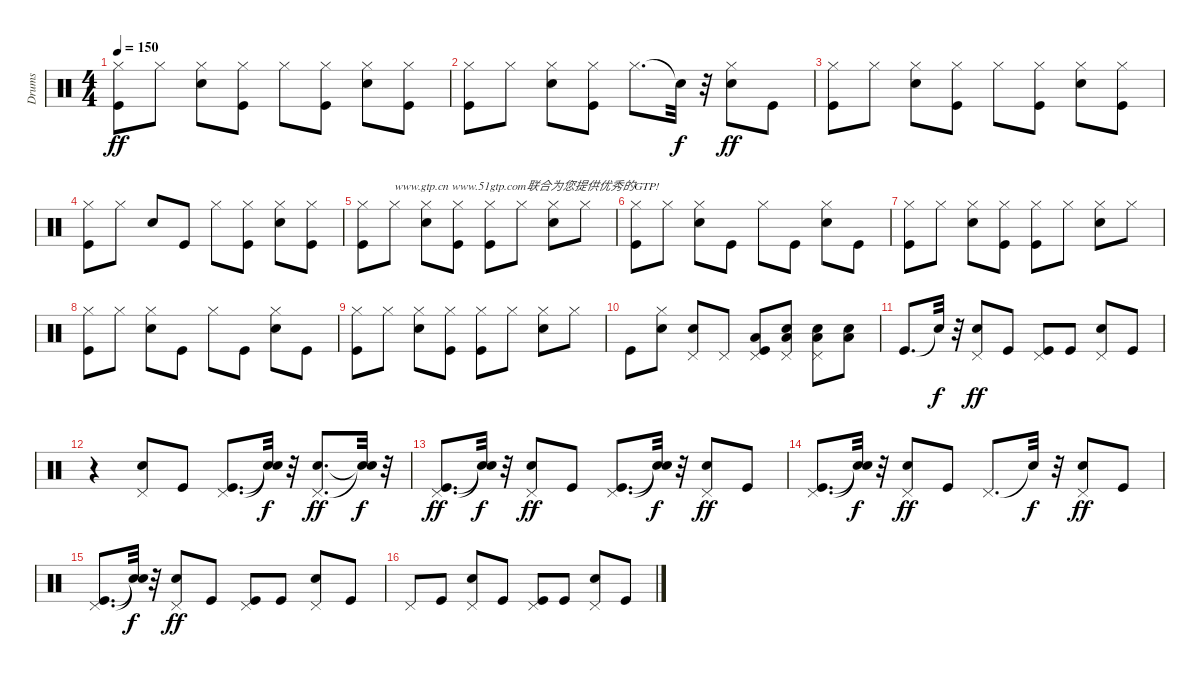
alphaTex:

\track ("Drums" "Drums") {instrument percussion}
\staff {score}
\articulation defaults
\ts (4 4)
\tempo 150
\clef neutral
\ks c
("Kick (hit)" "Hi-Hat (closed)").8{dy ff} "Hi-Hat (closed)".8 ("Snare (hit) 2" "Hi-Hat (closed)").8 ("Kick (hit)" "Hi-Hat (closed)").8 "Hi-Hat (closed)".8 ("Kick (hit)" "Hi-Hat (closed)").8 ("Snare (hit) 2" "Hi-Hat (closed)").8 ("Kick (hit)" "Hi-Hat (closed)").8 |
("Kick (hit)" "Hi-Hat (closed)").8 "Hi-Hat (closed)".8 ("Snare (hit) 2" "Hi-Hat (closed)").8 ("Kick (hit)" "Hi-Hat (closed)").8 "Hi-Hat (closed)".8{d} "Snare (hit)"{t}.32{dy f} r.32 ("Snare (hit) 2" "Hi-Hat (closed)").8{dy ff} "Kick (hit)".8 |
("Kick (hit)" "Hi-Hat (closed)").8 "Hi-Hat (closed)".8 ("Snare (hit) 2" "Hi-Hat (closed)").8 ("Kick (hit)" "Hi-Hat (closed)").8 "Hi-Hat (closed)".8 ("Kick (hit)" "Hi-Hat (closed)").8 ("Snare (hit) 2" "Hi-Hat (closed)").8 ("Kick (hit)" "Hi-Hat (closed)").8 |
("Kick (hit)" "Hi-Hat (closed)").8 "Hi-Hat (closed)".8 "Snare (hit) 2".8 "Kick (hit)".8 "Hi-Hat (closed)".8 ("Kick (hit)" "Hi-Hat (closed)").8 ("Snare (hit) 2" "Hi-Hat (closed)").8 ("Kick (hit)" "Hi-Hat (closed)").8 |
("Kick (hit)" "Hi-Hat (closed)").8 "Hi-Hat (closed)".8{txt "www.gtp.cn www.51gtp.com联合为您提供优秀的GTP!"} ("Snare (hit) 2" "Hi-Hat (closed)").8 ("Kick (hit)" "Hi-Hat (closed)").8 ("Kick (hit)" "Hi-Hat (closed)").8 "Hi-Hat (closed)".8 ("Snare (hit) 2" "Hi-Hat (closed)").8 "Hi-Hat (closed)".8 |
("Kick (hit)" "Hi-Hat (closed)").8 "Hi-Hat (closed)".8 ("Snare (hit) 2" "Hi-Hat (closed)").8 "Kick (hit)".8 "Hi-Hat (closed)".8 "Kick (hit)".8 ("Snare (hit) 2" "Hi-Hat (closed)").8 "Kick (hit)".8 |
("Kick (hit)" "Hi-Hat (closed)").8 "Hi-Hat (closed)".8 ("Snare (hit) 2" "Hi-Hat (closed)").8 ("Kick (hit)" "Hi-Hat (closed)").8 ("Kick (hit)" "Hi-Hat (closed)").8 "Hi-Hat (closed)".8 ("Snare (hit) 2" "Hi-Hat (closed)").8 "Hi-Hat (closed)".8 |
("Kick (hit)" "Hi-Hat (closed)").8 "Hi-Hat (closed)".8 ("Snare (hit) 2" "Hi-Hat (closed)").8 "Kick (hit)".8 "Hi-Hat (closed)".8 "Kick (hit)".8 ("Snare (hit) 2" "Hi-Hat (closed)").8 "Kick (hit)".8 |
("Kick (hit)" "Hi-Hat (closed)").8 "Hi-Hat (closed)".8 ("Snare (hit) 2" "Hi-Hat (closed)").8 ("Kick (hit)" "Hi-Hat (closed)").8 ("Kick (hit)" "Hi-Hat (closed)").8 "Hi-Hat (closed)".8 ("Snare (hit) 2" "Hi-Hat (closed)").8 "Hi-Hat (closed)".8 |
"Kick (hit)".8 ("Snare (hit) 2" "Hi-Hat (closed)").8 ("Snare (hit) 2" "Pedal Hi-Hat (hit)").8 "Pedal Hi-Hat (hit)".8 ("Kick (hit)" "Pedal Hi-Hat (hit)" "Low Tom (hit)").8 ("Snare (hit) 2" "Pedal Hi-Hat (hit)" "Low Tom (hit)").8 ("Snare (hit) 2" "Low Floor Tom (hit)" "Pedal Hi-Hat (hit)").8 ("Snare (hit) 2" "Low Floor Tom (hit)").8 |
"Kick (hit)".8{d} "Snare (hit)"{t}.32{dy f} r.32 ("Snare (hit) 2" "Pedal Hi-Hat (hit)").8{dy ff} "Kick (hit)".8 ("Kick (hit)" "Pedal Hi-Hat (hit)").8 "Kick (hit)".8 ("Snare (hit) 2" "Pedal Hi-Hat (hit)").8 "Kick (hit)".8 |
r.4 ("Snare (hit) 2" "Pedal Hi-Hat (hit)").8 "Kick (hit)".8 ("Kick (hit)" "Pedal Hi-Hat (hit)").8{d} ("Snare (hit)"{t} "Snare (hit)"{t}).32{dy f} r.32 ("Snare (hit) 2" "Pedal Hi-Hat (hit)").8{d dy ff} ("Snare (hit)"{t} "Snare (hit)"{t}).32{dy f} r.32 |
("Kick (hit)" "Pedal Hi-Hat (hit)").8{d dy ff} ("Snare (hit)"{t} "Snare (hit)"{t}).32{dy f} r.32 ("Snare (hit) 2" "Pedal Hi-Hat (hit)").8{dy ff} "Kick (hit)".8 ("Kick (hit)" "Pedal Hi-Hat (hit)").8{d} ("Snare (hit)"{t} "Snare (hit)"{t}).32{dy f} r.32 ("Snare (hit) 2" "Pedal Hi-Hat (hit)").8{dy ff} "Kick (hit)".8 |
("Kick (hit)" "Pedal Hi-Hat (hit)").8{d} ("Snare (hit)"{t} "Snare (hit)"{t}).32{dy f} r.32 ("Snare (hit) 2" "Pedal Hi-Hat (hit)").8{dy ff} "Kick (hit)".8 "Pedal Hi-Hat (hit)".8{d} "Snare (hit)"{t}.32{dy f} r.32 ("Snare (hit) 2" "Pedal Hi-Hat (hit)").8{dy ff} "Kick (hit)".8 |
("Kick (hit)" "Pedal Hi-Hat (hit)").8{d} ("Snare (hit)"{t} "Snare (hit)"{t}).32{dy f} r.32 ("Snare (hit) 2" "Pedal Hi-Hat (hit)").8{dy ff} "Kick (hit)".8 ("Kick (hit)" "Pedal Hi-Hat (hit)").8 "Kick (hit)".8 ("Snare (hit) 2" "Pedal Hi-Hat (hit)").8 "Kick (hit)".8 |
"Pedal Hi-Hat (hit)".8 "Kick (hit)".8 ("Snare (hit) 2" "Pedal Hi-Hat (hit)").8 "Kick (hit)".8 ("Kick (hit)" "Pedal Hi-Hat (hit)").8 "Kick (hit)".8 ("Snare (hit) 2" "Pedal Hi-Hat (hit)").8 "Kick (hit)".8
